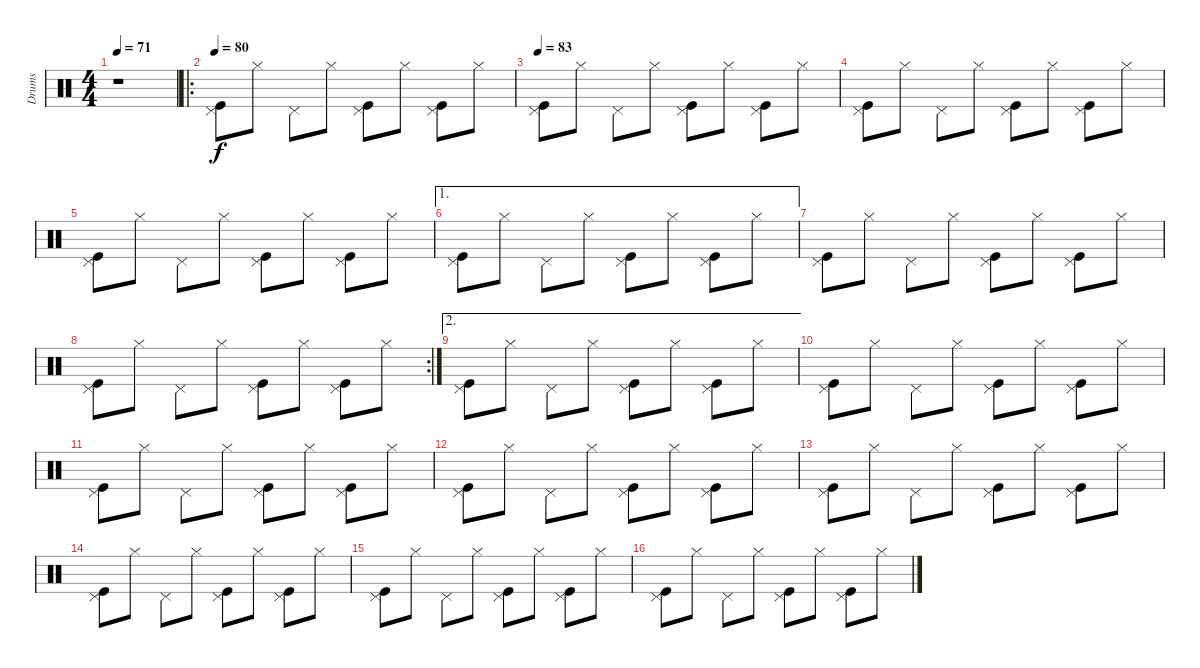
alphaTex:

\track ("Drums" "Drums") {instrument percussion}
\staff {score}
\articulation defaults
\ts (4 4)
\tempo 71
\clef neutral
\ks c
r.1{dy f} |
\ro
\tempo 80
("Pedal Hi-Hat (hit)" "Kick (hit)").8 "Hi-Hat (closed)".8 "Pedal Hi-Hat (hit)".8 "Hi-Hat (closed)".8 ("Pedal Hi-Hat (hit)" "Kick (hit)").8 "Hi-Hat (closed)".8 ("Pedal Hi-Hat (hit)" "Kick (hit)").8 "Hi-Hat (closed)".8 |
\tempo 83
("Pedal Hi-Hat (hit)" "Kick (hit)").8 "Hi-Hat (closed)".8 "Pedal Hi-Hat (hit)".8 "Hi-Hat (closed)".8 ("Pedal Hi-Hat (hit)" "Kick (hit)").8 "Hi-Hat (closed)".8 ("Pedal Hi-Hat (hit)" "Kick (hit)").8 "Hi-Hat (closed)".8 |
("Pedal Hi-Hat (hit)" "Kick (hit)").8 "Hi-Hat (closed)".8 "Pedal Hi-Hat (hit)".8 "Hi-Hat (closed)".8 ("Pedal Hi-Hat (hit)" "Kick (hit)").8 "Hi-Hat (closed)".8 ("Pedal Hi-Hat (hit)" "Kick (hit)").8 "Hi-Hat (closed)".8 |
("Pedal Hi-Hat (hit)" "Kick (hit)").8 "Hi-Hat (closed)".8 "Pedal Hi-Hat (hit)".8 "Hi-Hat (closed)".8 ("Pedal Hi-Hat (hit)" "Kick (hit)").8 "Hi-Hat (closed)".8 ("Pedal Hi-Hat (hit)" "Kick (hit)").8 "Hi-Hat (closed)".8 |
\ae 1
("Pedal Hi-Hat (hit)" "Kick (hit)").8 "Hi-Hat (closed)".8 "Pedal Hi-Hat (hit)".8 "Hi-Hat (closed)".8 ("Pedal Hi-Hat (hit)" "Kick (hit)").8 "Hi-Hat (closed)".8 ("Pedal Hi-Hat (hit)" "Kick (hit)").8 "Hi-Hat (closed)".8 |
("Pedal Hi-Hat (hit)" "Kick (hit)").8 "Hi-Hat (closed)".8 "Pedal Hi-Hat (hit)".8 "Hi-Hat (closed)".8 ("Pedal Hi-Hat (hit)" "Kick (hit)").8 "Hi-Hat (closed)".8 ("Pedal Hi-Hat (hit)" "Kick (hit)").8 "Hi-Hat (closed)".8 |
\rc 2
("Pedal Hi-Hat (hit)" "Kick (hit)").8 "Hi-Hat (closed)".8 "Pedal Hi-Hat (hit)".8 "Hi-Hat (closed)".8 ("Pedal Hi-Hat (hit)" "Kick (hit)").8 "Hi-Hat (closed)".8 ("Pedal Hi-Hat (hit)" "Kick (hit)").8 "Hi-Hat (closed)".8 |
\ae 2
("Pedal Hi-Hat (hit)" "Kick (hit)").8 "Hi-Hat (closed)".8 "Pedal Hi-Hat (hit)".8 "Hi-Hat (closed)".8 ("Pedal Hi-Hat (hit)" "Kick (hit)").8 "Hi-Hat (closed)".8 ("Pedal Hi-Hat (hit)" "Kick (hit)").8 "Hi-Hat (closed)".8 |
("Pedal Hi-Hat (hit)" "Kick (hit)").8 "Hi-Hat (closed)".8 "Pedal Hi-Hat (hit)".8 "Hi-Hat (closed)".8 ("Pedal Hi-Hat (hit)" "Kick (hit)").8 "Hi-Hat (closed)".8 ("Pedal Hi-Hat (hit)" "Kick (hit)").8 "Hi-Hat (closed)".8 |
("Pedal Hi-Hat (hit)" "Kick (hit)").8 "Hi-Hat (closed)".8 "Pedal Hi-Hat (hit)".8 "Hi-Hat (closed)".8 ("Pedal Hi-Hat (hit)" "Kick (hit)").8 "Hi-Hat (closed)".8 ("Pedal Hi-Hat (hit)" "Kick (hit)").8 "Hi-Hat (closed)".8 |
("Pedal Hi-Hat (hit)" "Kick (hit)").8 "Hi-Hat (closed)".8 "Pedal Hi-Hat (hit)".8 "Hi-Hat (closed)".8 ("Pedal Hi-Hat (hit)" "Kick (hit)").8 "Hi-Hat (closed)".8 ("Pedal Hi-Hat (hit)" "Kick (hit)").8 "Hi-Hat (closed)".8 |
("Pedal Hi-Hat (hit)" "Kick (hit)").8 "Hi-Hat (closed)".8 "Pedal Hi-Hat (hit)".8 "Hi-Hat (closed)".8 ("Pedal Hi-Hat (hit)" "Kick (hit)").8 "Hi-Hat (closed)".8 ("Pedal Hi-Hat (hit)" "Kick (hit)").8 "Hi-Hat (closed)".8 |
("Pedal Hi-Hat (hit)" "Kick (hit)").8 "Hi-Hat (closed)".8 "Pedal Hi-Hat (hit)".8 "Hi-Hat (closed)".8 ("Pedal Hi-Hat (hit)" "Kick (hit)").8 "Hi-Hat (closed)".8 ("Pedal Hi-Hat (hit)" "Kick (hit)").8 "Hi-Hat (closed)".8 |
("Pedal Hi-Hat (hit)" "Kick (hit)").8 "Hi-Hat (closed)".8 "Pedal Hi-Hat (hit)".8 "Hi-Hat (closed)".8 ("Pedal Hi-Hat (hit)" "Kick (hit)").8 "Hi-Hat (closed)".8 ("Pedal Hi-Hat (hit)" "Kick (hit)").8 "Hi-Hat (closed)".8 |
("Pedal Hi-Hat (hit)" "Kick (hit)").8 "Hi-Hat (closed)".8 "Pedal Hi-Hat (hit)".8 "Hi-Hat (closed)".8 ("Pedal Hi-Hat (hit)" "Kick (hit)").8 "Hi-Hat (closed)".8 ("Pedal Hi-Hat (hit)" "Kick (hit)").8 "Hi-Hat (closed)".8
